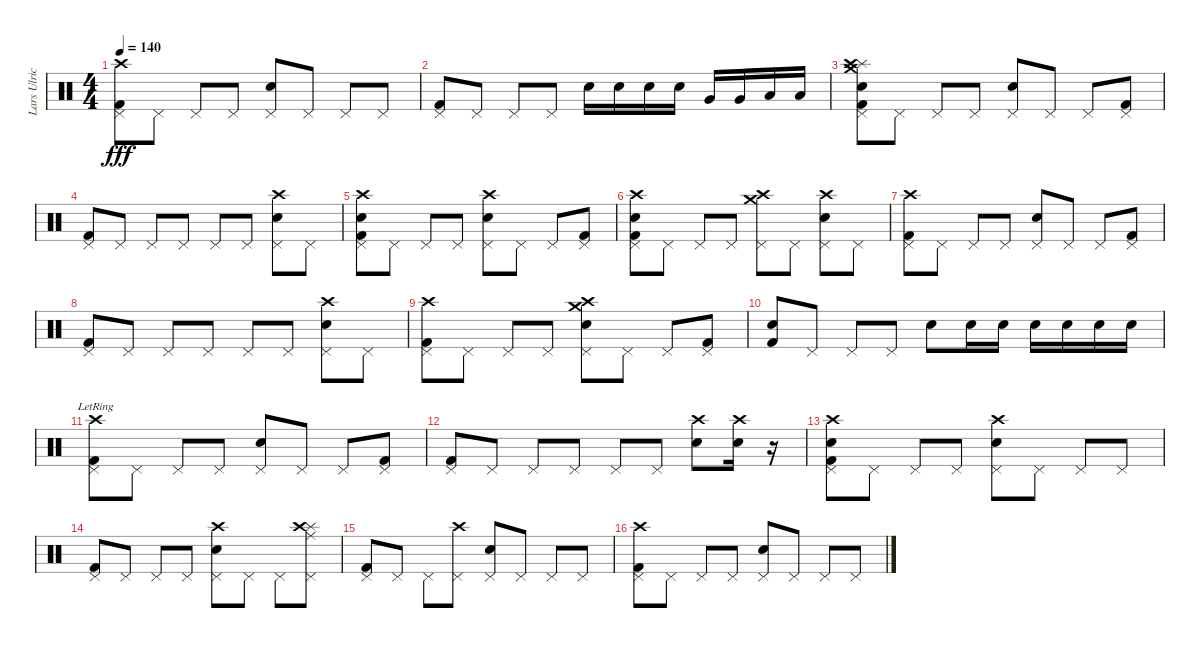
\track ("Lars Ulrich (Drums)" "Lars Ulric") {instrument percussion}
\staff {score}
\articulation defaults
\ts (4 4)
\tempo 140
\clef neutral
\ks c
("Crash high (hit)" "Pedal Hi-Hat (hit)" "Kick (hit) 2").8{dy fff} "Pedal Hi-Hat (hit)".8 "Pedal Hi-Hat (hit)".8 "Pedal Hi-Hat (hit)".8 ("Pedal Hi-Hat (hit)" "Snare (hit) 2").8 "Pedal Hi-Hat (hit)".8 "Pedal Hi-Hat (hit)".8 "Pedal Hi-Hat (hit)".8 |
("Pedal Hi-Hat (hit)" "Kick (hit) 2").8 "Pedal Hi-Hat (hit)".8 "Pedal Hi-Hat (hit)".8 "Pedal Hi-Hat (hit)".8 "Snare (hit) 2".16 "Snare (hit) 2".16 "Snare (hit) 2".16 "Snare (hit) 2".16 "Very Low Tom (hit)".16 "Very Low Tom (hit)".16 "Low Floor Tom (hit)".16 "Low Floor Tom (hit)".16 |
("Crash medium (hit)" "Splash (hit)" "Pedal Hi-Hat (hit)" "Crash high (hit)" "Snare (hit) 2" "Kick (hit) 2").8 "Pedal Hi-Hat (hit)".8 "Pedal Hi-Hat (hit)".8 "Pedal Hi-Hat (hit)".8 ("Pedal Hi-Hat (hit)" "Snare (hit) 2").8 "Pedal Hi-Hat (hit)".8 "Pedal Hi-Hat (hit)".8 ("Pedal Hi-Hat (hit)" "Kick (hit) 2").8 |
("Pedal Hi-Hat (hit)" "Kick (hit) 2").8 "Pedal Hi-Hat (hit)".8 "Pedal Hi-Hat (hit)".8 "Pedal Hi-Hat (hit)".8 "Pedal Hi-Hat (hit)".8 "Pedal Hi-Hat (hit)".8 ("Crash high (hit)" "Pedal Hi-Hat (hit)" "Snare (hit) 2").8 "Pedal Hi-Hat (hit)".8 |
("Crash high (hit)" "Pedal Hi-Hat (hit)" "Snare (hit) 2" "Kick (hit) 2").8 "Pedal Hi-Hat (hit)".8 "Pedal Hi-Hat (hit)".8 "Pedal Hi-Hat (hit)".8 ("Crash high (hit)" "Pedal Hi-Hat (hit)" "Snare (hit) 2").8 "Pedal Hi-Hat (hit)".8 "Pedal Hi-Hat (hit)".8 ("Pedal Hi-Hat (hit)" "Kick (hit) 2").8 |
("Crash high (hit)" "Pedal Hi-Hat (hit)" "Snare (hit) 2" "Kick (hit) 2").8 "Pedal Hi-Hat (hit)".8 "Pedal Hi-Hat (hit)".8 "Pedal Hi-Hat (hit)".8 ("Crash medium (hit)" "Crash high (hit)" "Pedal Hi-Hat (hit)").8 "Pedal Hi-Hat (hit)".8 ("Crash high (hit)" "Pedal Hi-Hat (hit)" "Snare (hit) 2").8 "Pedal Hi-Hat (hit)".8 |
("Crash high (hit)" "Pedal Hi-Hat (hit)" "Kick (hit) 2").8 "Pedal Hi-Hat (hit)".8 "Pedal Hi-Hat (hit)".8 "Pedal Hi-Hat (hit)".8 ("Pedal Hi-Hat (hit)" "Snare (hit) 2").8 "Pedal Hi-Hat (hit)".8 "Pedal Hi-Hat (hit)".8 ("Pedal Hi-Hat (hit)" "Kick (hit) 2").8 |
("Pedal Hi-Hat (hit)" "Kick (hit) 2").8 "Pedal Hi-Hat (hit)".8 "Pedal Hi-Hat (hit)".8 "Pedal Hi-Hat (hit)".8 "Pedal Hi-Hat (hit)".8 "Pedal Hi-Hat (hit)".8 ("Crash high (hit)" "Pedal Hi-Hat (hit)" "Snare (hit) 2").8 "Pedal Hi-Hat (hit)".8 |
("Crash high (hit)" "Pedal Hi-Hat (hit)" "Kick (hit) 2").8 "Pedal Hi-Hat (hit)".8 "Pedal Hi-Hat (hit)".8 "Pedal Hi-Hat (hit)".8 ("Crash medium (hit)" "Crash high (hit)" "Pedal Hi-Hat (hit)" "Snare (hit) 2").8 "Pedal Hi-Hat (hit)".8 "Pedal Hi-Hat (hit)".8 ("Pedal Hi-Hat (hit)" "Kick (hit) 2").8 |
("Snare (hit) 2" "Kick (hit) 2").8 "Pedal Hi-Hat (hit)".8 "Pedal Hi-Hat (hit)".8 "Pedal Hi-Hat (hit)".8 "Snare (hit) 2".8 "Snare (hit) 2".16 "Snare (hit) 2".16 "Snare (hit) 2".16 "Snare (hit) 2".16 "Snare (hit) 2".16 "Snare (hit) 2".16 |
("Crash high (hit)"{lr} "Pedal Hi-Hat (hit)" "Kick (hit) 2").8 "Pedal Hi-Hat (hit)".8 "Pedal Hi-Hat (hit)".8 "Pedal Hi-Hat (hit)".8 ("Pedal Hi-Hat (hit)" "Snare (hit) 2").8 "Pedal Hi-Hat (hit)".8 "Pedal Hi-Hat (hit)".8 ("Pedal Hi-Hat (hit)" "Kick (hit) 2").8 |
("Pedal Hi-Hat (hit)" "Kick (hit) 2").8 "Pedal Hi-Hat (hit)".8 "Pedal Hi-Hat (hit)".8 "Pedal Hi-Hat (hit)".8 "Pedal Hi-Hat (hit)".8 "Pedal Hi-Hat (hit)".8 ("Crash high (hit)" "Snare (hit) 2").8 ("Crash high (hit)" "Snare (hit) 2").16 r.16 |
("Kick (hit) 2" "Crash high (hit)" "Pedal Hi-Hat (hit)" "Snare (hit) 2").8 "Pedal Hi-Hat (hit)".8 "Pedal Hi-Hat (hit)".8 "Pedal Hi-Hat (hit)".8 ("Crash high (hit)" "Pedal Hi-Hat (hit)" "Snare (hit) 2").8 "Pedal Hi-Hat (hit)".8 "Pedal Hi-Hat (hit)".8 "Pedal Hi-Hat (hit)".8 |
("Pedal Hi-Hat (hit)" "Kick (hit) 2").8 "Pedal Hi-Hat (hit)".8 "Pedal Hi-Hat (hit)".8 "Pedal Hi-Hat (hit)".8 ("Crash high (hit)" "Pedal Hi-Hat (hit)" "Snare (hit) 2").8 "Pedal Hi-Hat (hit)".8 "Pedal Hi-Hat (hit)".8 ("Splash (hit)" "Crash high (hit)" "Ride (middle)" "Pedal Hi-Hat (hit)").8 |
("Pedal Hi-Hat (hit)" "Kick (hit) 2").8 "Pedal Hi-Hat (hit)".8 "Pedal Hi-Hat (hit)".8 ("Crash high (hit)" "Pedal Hi-Hat (hit)").8 ("Pedal Hi-Hat (hit)" "Snare (hit) 2").8 "Pedal Hi-Hat (hit)".8 "Pedal Hi-Hat (hit)".8 "Pedal Hi-Hat (hit)".8 |
("Crash high (hit)" "Pedal Hi-Hat (hit)" "Kick (hit) 2").8 "Pedal Hi-Hat (hit)".8 "Pedal Hi-Hat (hit)".8 "Pedal Hi-Hat (hit)".8 ("Pedal Hi-Hat (hit)" "Snare (hit) 2").8 "Pedal Hi-Hat (hit)".8 "Pedal Hi-Hat (hit)".8 "Pedal Hi-Hat (hit)".8
